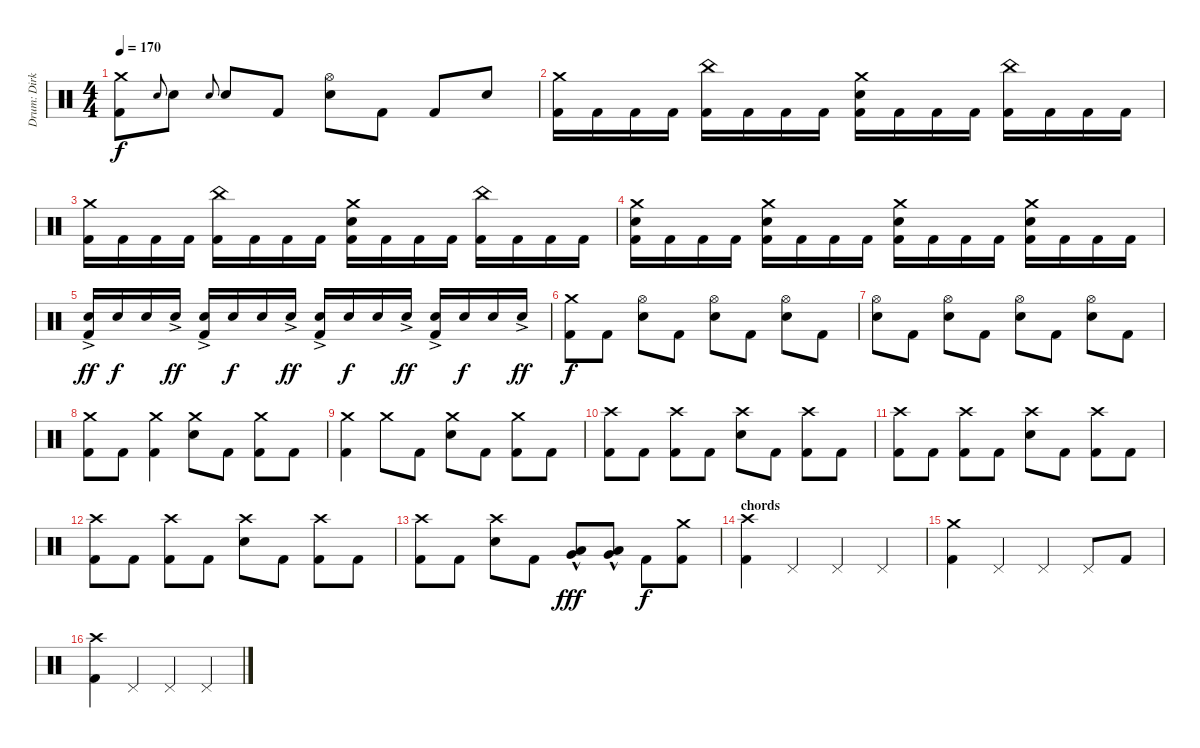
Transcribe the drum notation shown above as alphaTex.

\track ("Drum: Dirk" "Drum: Dirk") {instrument percussion}
\staff {score}
\articulation defaults
\ts (4 4)
\tempo 170
\clef neutral
\ks c
("Crash medium (hit)" "Kick (hit) 2").8{dy f} "Electric Snare (hit)".8{gr onbeat} "Electric Snare (hit)".8 "Electric Snare (hit)".8{gr onbeat} "Electric Snare (hit)".8 "Kick (hit) 2".8 ("Hi-Hat (open)" "Electric Snare (hit)").8 "Kick (hit) 2".8 "Kick (hit) 2".8 "Electric Snare (hit)".8 |
("Crash medium (hit)" "Kick (hit) 2").16 "Kick (hit) 2".16 "Kick (hit) 2".16 "Kick (hit) 2".16 ("China (hit)" "Kick (hit) 2").16 "Kick (hit) 2".16 "Kick (hit) 2".16 "Kick (hit) 2".16 ("Crash medium (hit)" "Electric Snare (hit)" "Kick (hit) 2").16 "Kick (hit) 2".16 "Kick (hit) 2".16 "Kick (hit) 2".16 ("China (hit)" "Kick (hit) 2").16 "Kick (hit) 2".16 "Kick (hit) 2".16 "Kick (hit) 2".16 |
("Crash medium (hit)" "Kick (hit) 2").16 "Kick (hit) 2".16 "Kick (hit) 2".16 "Kick (hit) 2".16 ("China (hit)" "Kick (hit) 2").16 "Kick (hit) 2".16 "Kick (hit) 2".16 "Kick (hit) 2".16 ("Crash medium (hit)" "Electric Snare (hit)" "Kick (hit) 2").16 "Kick (hit) 2".16 "Kick (hit) 2".16 "Kick (hit) 2".16 ("China (hit)" "Kick (hit) 2").16 "Kick (hit) 2".16 "Kick (hit) 2".16 "Kick (hit) 2".16 |
("Crash medium (hit)" "Electric Snare (hit)" "Kick (hit) 2").16 "Kick (hit) 2".16 "Kick (hit) 2".16 "Kick (hit) 2".16 ("Crash medium (hit)" "Electric Snare (hit)" "Kick (hit) 2").16 "Kick (hit) 2".16 "Kick (hit) 2".16 "Kick (hit) 2".16 ("Crash medium (hit)" "Electric Snare (hit)" "Kick (hit) 2").16 "Kick (hit) 2".16 "Kick (hit) 2".16 "Kick (hit) 2".16 ("Crash medium (hit)" "Electric Snare (hit)" "Kick (hit) 2").16 "Kick (hit) 2".16 "Kick (hit) 2".16 "Kick (hit) 2".16 |
("Electric Snare (hit)"{ac} "Kick (hit) 2").16{dy ff} "Electric Snare (hit)".16{dy f} "Electric Snare (hit)".16 "Electric Snare (hit)"{ac}.16{dy ff} ("Electric Snare (hit)"{ac} "Kick (hit) 2").16 "Electric Snare (hit)".16{dy f} "Electric Snare (hit)".16 "Electric Snare (hit)"{ac}.16{dy ff} ("Electric Snare (hit)"{ac} "Kick (hit) 2").16 "Electric Snare (hit)".16{dy f} "Electric Snare (hit)".16 "Electric Snare (hit)"{ac}.16{dy ff} ("Electric Snare (hit)"{ac} "Kick (hit) 2").16 "Electric Snare (hit)".16{dy f} "Electric Snare (hit)".16 "Electric Snare (hit)"{ac}.16{dy ff} |
("Crash medium (hit)" "Kick (hit) 2").8{dy f} "Kick (hit) 2".8 ("Hi-Hat (open)" "Electric Snare (hit)").8 "Kick (hit) 2".8 ("Hi-Hat (open)" "Electric Snare (hit)").8 "Kick (hit) 2".8 ("Hi-Hat (open)" "Electric Snare (hit)").8 "Kick (hit) 2".8 |
("Hi-Hat (open)" "Electric Snare (hit)").8 "Kick (hit) 2".8 ("Hi-Hat (open)" "Electric Snare (hit)").8 "Kick (hit) 2".8 ("Hi-Hat (open)" "Electric Snare (hit)").8 "Kick (hit) 2".8 ("Hi-Hat (open)" "Electric Snare (hit)").8 "Kick (hit) 2".8 |
("Crash medium (hit)" "Kick (hit) 2").8 "Kick (hit) 2".8 ("Crash medium (hit)" "Kick (hit) 2").4 ("Crash medium (hit)" "Electric Snare (hit)").8 "Kick (hit) 2".8 ("Crash medium (hit)" "Kick (hit) 2").8 "Kick (hit) 2".8 |
("Crash medium (hit)" "Kick (hit) 2").4 "Crash medium (hit)".8 "Kick (hit) 2".8 ("Crash medium (hit)" "Electric Snare (hit)").8 "Kick (hit) 2".8 ("Crash medium (hit)" "Kick (hit) 2").8 "Kick (hit) 2".8 |
("Crash high (hit)" "Kick (hit) 2").8 "Kick (hit) 2".8 ("Crash high (hit)" "Kick (hit) 2").8 "Kick (hit) 2".8 ("Crash high (hit)" "Electric Snare (hit)").8 "Kick (hit) 2".8 ("Crash high (hit)" "Kick (hit) 2").8 "Kick (hit) 2".8 |
("Crash high (hit)" "Kick (hit) 2").8 "Kick (hit) 2".8 ("Crash high (hit)" "Kick (hit) 2").8 "Kick (hit) 2".8 ("Crash high (hit)" "Electric Snare (hit)").8 "Kick (hit) 2".8 ("Crash high (hit)" "Kick (hit) 2").8 "Kick (hit) 2".8 |
("Crash high (hit)" "Kick (hit) 2").8 "Kick (hit) 2".8 ("Crash high (hit)" "Kick (hit) 2").8 "Kick (hit) 2".8 ("Crash high (hit)" "Electric Snare (hit)").8 "Kick (hit) 2".8 ("Crash high (hit)" "Kick (hit) 2").8 "Kick (hit) 2".8 |
("Crash high (hit)" "Kick (hit) 2").8 "Kick (hit) 2".8 ("Crash high (hit)" "Electric Snare (hit)").8 "Kick (hit) 2".8 ("Low Tom (hit)"{hac} "Very Low Tom (hit)"{hac}).8{dy fff} ("Low Tom (hit)"{hac} "Very Low Tom (hit)"{hac}).8 "Kick (hit) 2".8{dy f} ("Crash medium (hit)" "Kick (hit) 2").8 |
\section ("" "chords")
("Crash high (hit)" "Kick (hit) 2").4 "Pedal Hi-Hat (hit)".4 "Pedal Hi-Hat (hit)".4 "Pedal Hi-Hat (hit)".4 |
("Crash medium (hit)" "Kick (hit) 2").4 "Pedal Hi-Hat (hit)".4 "Pedal Hi-Hat (hit)".4 "Pedal Hi-Hat (hit)".8 "Kick (hit) 2".8 |
("Crash high (hit)" "Kick (hit) 2").4 "Pedal Hi-Hat (hit)".4 "Pedal Hi-Hat (hit)".4 "Pedal Hi-Hat (hit)".4
